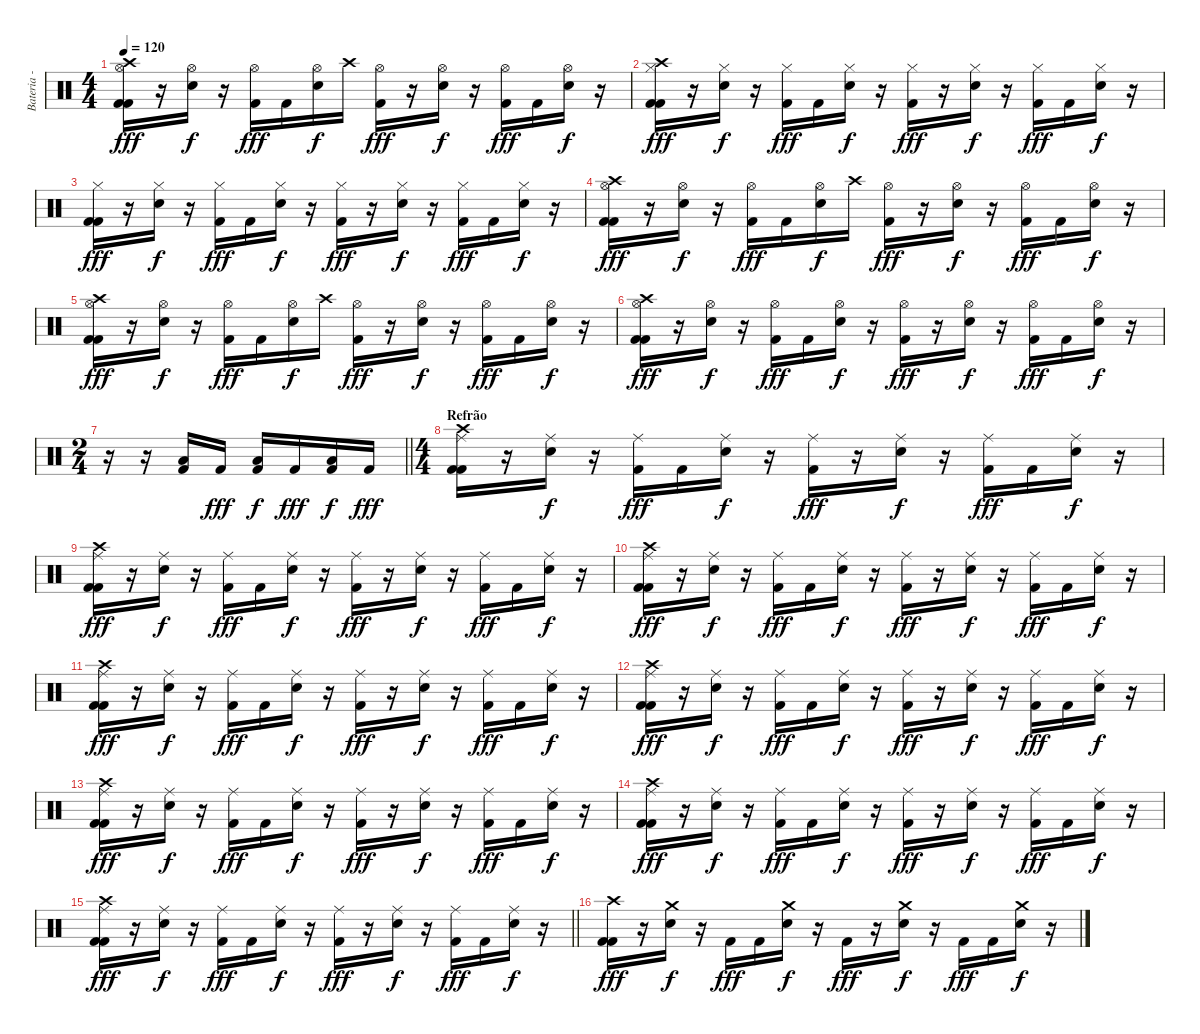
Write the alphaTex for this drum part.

\track ("Bateria - Larzon" "Bateria - ") {instrument percussion}
\staff {score}
\articulation defaults
\ts (4 4)
\tempo 120
\clef neutral
\ks c
("Kick (hit) 2" "Kick (hit) 2" "Crash high (hit)" "Hi-Hat (open)").16{dy fff} r.16 ("Snare (hit) 2" "Hi-Hat (open)").16{dy f} r.16 ("Kick (hit) 2" "Hi-Hat (open)").16{dy fff} "Kick (hit) 2".16 ("Snare (hit) 2" "Hi-Hat (open)").16{dy f} "Crash high (hit)".16 ("Kick (hit) 2" "Hi-Hat (open)").16{dy fff} r.16 ("Snare (hit) 2" "Hi-Hat (open)").16{dy f} r.16 ("Kick (hit) 2" "Hi-Hat (open)").16{dy fff} "Kick (hit) 2".16 ("Snare (hit) 2" "Hi-Hat (open)").16{dy f} r.16 |
("Kick (hit) 2" "Kick (hit) 2" "Crash high (hit)" "Hi-Hat (closed)").16{dy fff} r.16 ("Snare (hit) 2" "Hi-Hat (closed)").16{dy f} r.16 ("Kick (hit) 2" "Hi-Hat (closed)").16{dy fff} "Kick (hit) 2".16 ("Snare (hit) 2" "Hi-Hat (closed)").16{dy f} r.16 ("Kick (hit) 2" "Hi-Hat (closed)").16{dy fff} r.16 ("Snare (hit) 2" "Hi-Hat (closed)").16{dy f} r.16 ("Kick (hit) 2" "Hi-Hat (closed)").16{dy fff} "Kick (hit) 2".16 ("Snare (hit) 2" "Hi-Hat (closed)").16{dy f} r.16 |
("Kick (hit) 2" "Kick (hit) 2" "Hi-Hat (closed)").16{dy fff} r.16 ("Snare (hit) 2" "Hi-Hat (closed)").16{dy f} r.16 ("Kick (hit) 2" "Hi-Hat (closed)").16{dy fff} "Kick (hit) 2".16 ("Snare (hit) 2" "Hi-Hat (closed)").16{dy f} r.16 ("Kick (hit) 2" "Hi-Hat (closed)").16{dy fff} r.16 ("Snare (hit) 2" "Hi-Hat (closed)").16{dy f} r.16 ("Kick (hit) 2" "Hi-Hat (closed)").16{dy fff} "Kick (hit) 2".16 ("Snare (hit) 2" "Hi-Hat (closed)").16{dy f} r.16 |
("Kick (hit) 2" "Kick (hit) 2" "Crash high (hit)" "Hi-Hat (open)").16{dy fff} r.16 ("Snare (hit) 2" "Hi-Hat (open)").16{dy f} r.16 ("Kick (hit) 2" "Hi-Hat (open)").16{dy fff} "Kick (hit) 2".16 ("Snare (hit) 2" "Hi-Hat (open)").16{dy f} "Crash high (hit)".16 ("Kick (hit) 2" "Hi-Hat (open)").16{dy fff} r.16 ("Snare (hit) 2" "Hi-Hat (open)").16{dy f} r.16 ("Kick (hit) 2" "Hi-Hat (open)").16{dy fff} "Kick (hit) 2".16 ("Snare (hit) 2" "Hi-Hat (open)").16{dy f} r.16 |
("Kick (hit) 2" "Kick (hit) 2" "Crash high (hit)" "Hi-Hat (open)").16{dy fff} r.16 ("Snare (hit) 2" "Hi-Hat (open)").16{dy f} r.16 ("Kick (hit) 2" "Hi-Hat (open)").16{dy fff} "Kick (hit) 2".16 ("Snare (hit) 2" "Hi-Hat (open)").16{dy f} "Crash high (hit)".16 ("Kick (hit) 2" "Hi-Hat (open)").16{dy fff} r.16 ("Snare (hit) 2" "Hi-Hat (open)").16{dy f} r.16 ("Kick (hit) 2" "Hi-Hat (open)").16{dy fff} "Kick (hit) 2".16 ("Snare (hit) 2" "Hi-Hat (open)").16{dy f} r.16 |
("Kick (hit) 2" "Kick (hit) 2" "Crash high (hit)" "Hi-Hat (open)").16{dy fff} r.16 ("Snare (hit) 2" "Hi-Hat (open)").16{dy f} r.16 ("Kick (hit) 2" "Hi-Hat (open)").16{dy fff} "Kick (hit) 2".16 ("Snare (hit) 2" "Hi-Hat (open)").16{dy f} r.16 ("Kick (hit) 2" "Hi-Hat (open)").16{dy fff} r.16 ("Snare (hit) 2" "Hi-Hat (open)").16{dy f} r.16 ("Kick (hit) 2" "Hi-Hat (open)").16{dy fff} "Kick (hit) 2".16 ("Snare (hit) 2" "Hi-Hat (open)").16{dy f} r.16 |
\ts (2 4)
\barLineRight lightlight
r.16 r.16 ("Kick (hit) 2" "Low Floor Tom (hit)").16 "Kick (hit) 2".16{dy fff} ("Kick (hit) 2" "Low Floor Tom (hit)").16{dy f} "Kick (hit) 2".16{dy fff} ("Kick (hit) 2" "Low Floor Tom (hit)").16{dy f} "Kick (hit) 2".16{dy fff} |
\ts (4 4)
\section ("" "Refrão")
("Kick (hit) 2" "Kick (hit) 2" "Crash high (hit)" "Ride (middle)").16 r.16 ("Snare (hit) 2" "Ride (middle)").16{dy f} r.16 ("Kick (hit) 2" "Ride (middle)").16{dy fff} "Kick (hit) 2".16 ("Snare (hit) 2" "Ride (middle)").16{dy f} r.16 ("Kick (hit) 2" "Ride (middle)").16{dy fff} r.16 ("Snare (hit) 2" "Ride (middle)").16{dy f} r.16 ("Kick (hit) 2" "Ride (middle)").16{dy fff} "Kick (hit) 2".16 ("Snare (hit) 2" "Ride (middle)").16{dy f} r.16 |
("Kick (hit) 2" "Kick (hit) 2" "Crash high (hit)" "Ride (middle)").16{dy fff} r.16 ("Snare (hit) 2" "Ride (middle)").16{dy f} r.16 ("Kick (hit) 2" "Ride (middle)").16{dy fff} "Kick (hit) 2".16 ("Snare (hit) 2" "Ride (middle)").16{dy f} r.16 ("Kick (hit) 2" "Ride (middle)").16{dy fff} r.16 ("Snare (hit) 2" "Ride (middle)").16{dy f} r.16 ("Kick (hit) 2" "Ride (middle)").16{dy fff} "Kick (hit) 2".16 ("Snare (hit) 2" "Ride (middle)").16{dy f} r.16 |
("Kick (hit) 2" "Kick (hit) 2" "Crash high (hit)" "Ride (middle)").16{dy fff} r.16 ("Snare (hit) 2" "Ride (middle)").16{dy f} r.16 ("Kick (hit) 2" "Ride (middle)").16{dy fff} "Kick (hit) 2".16 ("Snare (hit) 2" "Ride (middle)").16{dy f} r.16 ("Kick (hit) 2" "Ride (middle)").16{dy fff} r.16 ("Snare (hit) 2" "Ride (middle)").16{dy f} r.16 ("Kick (hit) 2" "Ride (middle)").16{dy fff} "Kick (hit) 2".16 ("Snare (hit) 2" "Ride (middle)").16{dy f} r.16 |
("Kick (hit) 2" "Kick (hit) 2" "Crash high (hit)" "Ride (middle)").16{dy fff} r.16 ("Snare (hit) 2" "Ride (middle)").16{dy f} r.16 ("Kick (hit) 2" "Ride (middle)").16{dy fff} "Kick (hit) 2".16 ("Snare (hit) 2" "Ride (middle)").16{dy f} r.16 ("Kick (hit) 2" "Ride (middle)").16{dy fff} r.16 ("Snare (hit) 2" "Ride (middle)").16{dy f} r.16 ("Kick (hit) 2" "Ride (middle)").16{dy fff} "Kick (hit) 2".16 ("Snare (hit) 2" "Ride (middle)").16{dy f} r.16 |
("Kick (hit) 2" "Kick (hit) 2" "Crash high (hit)" "Ride (middle)").16{dy fff} r.16 ("Snare (hit) 2" "Ride (middle)").16{dy f} r.16 ("Kick (hit) 2" "Ride (middle)").16{dy fff} "Kick (hit) 2".16 ("Snare (hit) 2" "Ride (middle)").16{dy f} r.16 ("Kick (hit) 2" "Ride (middle)").16{dy fff} r.16 ("Snare (hit) 2" "Ride (middle)").16{dy f} r.16 ("Kick (hit) 2" "Ride (middle)").16{dy fff} "Kick (hit) 2".16 ("Snare (hit) 2" "Ride (middle)").16{dy f} r.16 |
("Kick (hit) 2" "Kick (hit) 2" "Crash high (hit)" "Ride (middle)").16{dy fff} r.16 ("Snare (hit) 2" "Ride (middle)").16{dy f} r.16 ("Kick (hit) 2" "Ride (middle)").16{dy fff} "Kick (hit) 2".16 ("Snare (hit) 2" "Ride (middle)").16{dy f} r.16 ("Kick (hit) 2" "Ride (middle)").16{dy fff} r.16 ("Snare (hit) 2" "Ride (middle)").16{dy f} r.16 ("Kick (hit) 2" "Ride (middle)").16{dy fff} "Kick (hit) 2".16 ("Snare (hit) 2" "Ride (middle)").16{dy f} r.16 |
("Kick (hit) 2" "Kick (hit) 2" "Crash high (hit)" "Ride (middle)").16{dy fff} r.16 ("Snare (hit) 2" "Ride (middle)").16{dy f} r.16 ("Kick (hit) 2" "Ride (middle)").16{dy fff} "Kick (hit) 2".16 ("Snare (hit) 2" "Ride (middle)").16{dy f} r.16 ("Kick (hit) 2" "Ride (middle)").16{dy fff} r.16 ("Snare (hit) 2" "Ride (middle)").16{dy f} r.16 ("Kick (hit) 2" "Ride (middle)").16{dy fff} "Kick (hit) 2".16 ("Snare (hit) 2" "Ride (middle)").16{dy f} r.16 |
\barLineRight lightlight
("Kick (hit) 2" "Kick (hit) 2" "Crash high (hit)" "Ride (middle)").16{dy fff} r.16 ("Snare (hit) 2" "Ride (middle)").16{dy f} r.16 ("Kick (hit) 2" "Ride (middle)").16{dy fff} "Kick (hit) 2".16 ("Snare (hit) 2" "Ride (middle)").16{dy f} r.16 ("Kick (hit) 2" "Ride (middle)").16{dy fff} r.16 ("Snare (hit) 2" "Ride (middle)").16{dy f} r.16 ("Kick (hit) 2" "Ride (middle)").16{dy fff} "Kick (hit) 2".16 ("Snare (hit) 2" "Ride (middle)").16{dy f} r.16 |
("Kick (hit) 2" "Kick (hit) 2" "Crash high (hit)").16{dy fff} r.16 ("Snare (hit) 2" "Crash medium (hit)").16{dy f} r.16 "Kick (hit) 2".16{dy fff} "Kick (hit) 2".16 ("Snare (hit) 2" "Crash medium (hit)").16{dy f} r.16 "Kick (hit) 2".16{dy fff} r.16 ("Snare (hit) 2" "Crash medium (hit)").16{dy f} r.16 "Kick (hit) 2".16{dy fff} "Kick (hit) 2".16 ("Snare (hit) 2" "Crash medium (hit)").16{dy f} r.16
